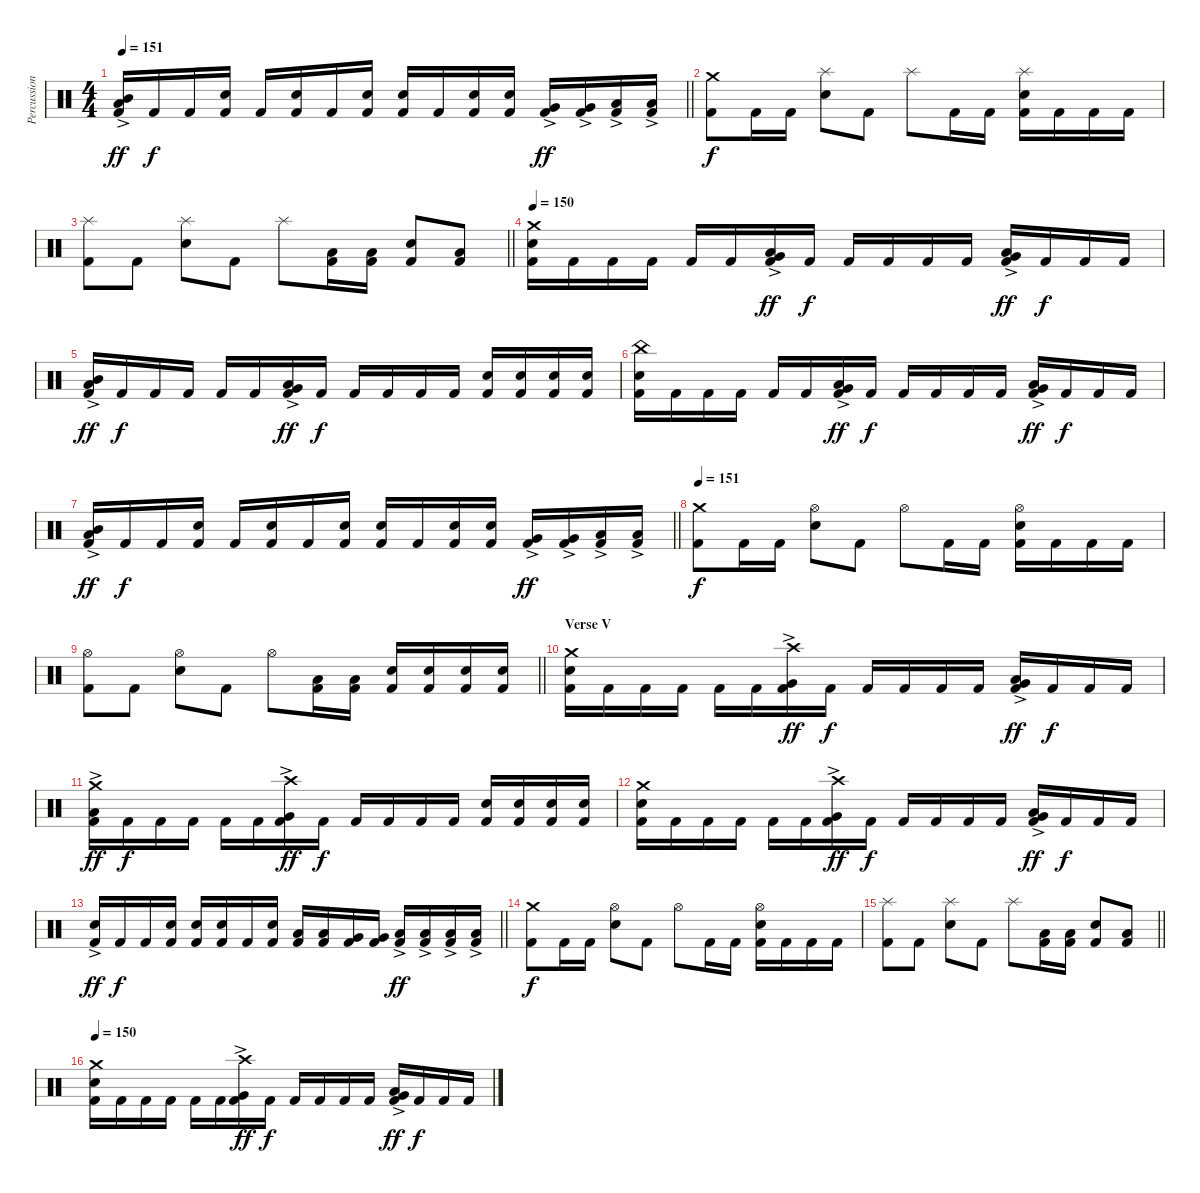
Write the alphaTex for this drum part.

\track ("Percussion" "Percussion") {instrument percussion}
\staff {score}
\articulation defaults
\ts (4 4)
\tempo 151
\clef neutral
\barLineRight lightlight
\ks c
("Kick (hit) 2" "Low Tom (hit)"{ac} "Mid Tom (hit)"{ac}).16{dy ff} "Kick (hit) 2".16{dy f} "Kick (hit) 2".16 ("Kick (hit) 2" "Snare (hit) 2").16 "Kick (hit) 2".16 ("Kick (hit) 2" "Snare (hit) 2").16 "Kick (hit) 2".16 ("Kick (hit) 2" "Snare (hit) 2").16 ("Kick (hit) 2" "Snare (hit) 2").16 "Kick (hit) 2".16 ("Kick (hit) 2" "Snare (hit) 2").16 ("Kick (hit) 2" "Snare (hit) 2").16 ("Kick (hit) 2" "Very Low Tom (hit)"{ac}).16{dy ff} ("Kick (hit) 2" "Very Low Tom (hit)"{ac}).16 ("Kick (hit) 2" "Low Floor Tom (hit)"{ac}).16 ("Kick (hit) 2" "Low Floor Tom (hit)"{ac}).16 |
\section ("" "")
("Kick (hit) 2" "Crash medium (hit)").8{dy f} "Kick (hit) 2".16 "Kick (hit) 2".16 ("Snare (hit) 2" "Splash (hit)").8 "Kick (hit) 2".8 "Splash (hit)".8 "Kick (hit) 2".16 "Kick (hit) 2".16 ("Kick (hit) 2" "Snare (hit) 2" "Splash (hit)").16 "Kick (hit) 2".16 "Kick (hit) 2".16 "Kick (hit) 2".16 |
\barLineRight lightlight
("Kick (hit) 2" "Splash (hit)").8 "Kick (hit) 2".8 ("Snare (hit) 2" "Splash (hit)").8 "Kick (hit) 2".8 "Splash (hit)".8 ("Kick (hit) 2" "Low Tom (hit)").16 ("Kick (hit) 2" "Low Tom (hit)").16 ("Kick (hit) 2" "Snare (hit) 2").8 ("Kick (hit) 2" "Low Floor Tom (hit)").8 |
\section ("" "")
\tempo 150
("Kick (hit) 2" "Snare (hit) 2" "Crash medium (hit)").16 "Kick (hit) 2".16 "Kick (hit) 2".16 "Kick (hit) 2".16 "Kick (hit) 2".16 "Kick (hit) 2".16 ("Kick (hit) 2" "Very Low Tom (hit)"{ac} "Low Tom (hit)"{ac}).16{dy ff} "Kick (hit) 2".16{dy f} "Kick (hit) 2".16 "Kick (hit) 2".16 "Kick (hit) 2".16 "Kick (hit) 2".16 ("Kick (hit) 2" "Low Floor Tom (hit)"{ac} "Very Low Tom (hit)"{ac}).16{dy ff} "Kick (hit) 2".16{dy f} "Kick (hit) 2".16 "Kick (hit) 2".16 |
("Kick (hit) 2" "Low Tom (hit)"{ac} "Mid Tom (hit)"{ac}).16{dy ff} "Kick (hit) 2".16{dy f} "Kick (hit) 2".16 "Kick (hit) 2".16 "Kick (hit) 2".16 "Kick (hit) 2".16 ("Kick (hit) 2" "Very Low Tom (hit)"{ac} "Low Tom (hit)"{ac}).16{dy ff} "Kick (hit) 2".16{dy f} "Kick (hit) 2".16 "Kick (hit) 2".16 "Kick (hit) 2".16 "Kick (hit) 2".16 ("Kick (hit) 2" "Snare (hit) 2").16 ("Kick (hit) 2" "Snare (hit) 2").16 ("Kick (hit) 2" "Snare (hit) 2").16 ("Kick (hit) 2" "Snare (hit) 2").16 |
("Kick (hit) 2" "Snare (hit) 2" "China (hit)").16 "Kick (hit) 2".16 "Kick (hit) 2".16 "Kick (hit) 2".16 "Kick (hit) 2".16 "Kick (hit) 2".16 ("Kick (hit) 2" "Very Low Tom (hit)"{ac} "Low Tom (hit)"{ac}).16{dy ff} "Kick (hit) 2".16{dy f} "Kick (hit) 2".16 "Kick (hit) 2".16 "Kick (hit) 2".16 "Kick (hit) 2".16 ("Kick (hit) 2" "Low Floor Tom (hit)"{ac} "Very Low Tom (hit)"{ac}).16{dy ff} "Kick (hit) 2".16{dy f} "Kick (hit) 2".16 "Kick (hit) 2".16 |
\barLineRight lightlight
("Kick (hit) 2" "Low Tom (hit)"{ac} "Mid Tom (hit)"{ac}).16{dy ff} "Kick (hit) 2".16{dy f} "Kick (hit) 2".16 ("Kick (hit) 2" "Snare (hit) 2").16 "Kick (hit) 2".16 ("Kick (hit) 2" "Snare (hit) 2").16 "Kick (hit) 2".16 ("Kick (hit) 2" "Snare (hit) 2").16 ("Kick (hit) 2" "Snare (hit) 2").16 "Kick (hit) 2".16 ("Kick (hit) 2" "Snare (hit) 2").16 ("Kick (hit) 2" "Snare (hit) 2").16 ("Kick (hit) 2" "Very Low Tom (hit)"{ac}).16{dy ff} ("Kick (hit) 2" "Very Low Tom (hit)"{ac}).16 ("Kick (hit) 2" "Low Floor Tom (hit)"{ac}).16 ("Kick (hit) 2" "Low Floor Tom (hit)"{ac}).16 |
\section ("" "")
\tempo 151
("Kick (hit) 2" "Crash medium (hit)").8{dy f} "Kick (hit) 2".16 "Kick (hit) 2".16 ("Snare (hit) 2" "Hi-Hat (open)").8 "Kick (hit) 2".8 "Hi-Hat (open)".8 "Kick (hit) 2".16 "Kick (hit) 2".16 ("Kick (hit) 2" "Snare (hit) 2" "Hi-Hat (open)").16 "Kick (hit) 2".16 "Kick (hit) 2".16 "Kick (hit) 2".16 |
\barLineRight lightlight
("Kick (hit) 2" "Hi-Hat (open)").8 "Kick (hit) 2".8 ("Snare (hit) 2" "Hi-Hat (open)").8 "Kick (hit) 2".8 "Hi-Hat (open)".8 ("Kick (hit) 2" "Low Tom (hit)").16 ("Kick (hit) 2" "Low Tom (hit)").16 ("Kick (hit) 2" "Snare (hit) 2").16 ("Kick (hit) 2" "Snare (hit) 2").16 ("Kick (hit) 2" "Snare (hit) 2").16 ("Kick (hit) 2" "Snare (hit) 2").16 |
\section ("" "Verse V")
("Kick (hit) 2" "Snare (hit) 2" "Crash medium (hit)").16 "Kick (hit) 2".16 "Kick (hit) 2".16 "Kick (hit) 2".16 "Kick (hit) 2".16 "Kick (hit) 2".16 ("Kick (hit) 2" "Very Low Tom (hit)"{ac} "Crash high (hit)").16{dy ff} "Kick (hit) 2".16{dy f} "Kick (hit) 2".16 "Kick (hit) 2".16 "Kick (hit) 2".16 "Kick (hit) 2".16 ("Kick (hit) 2" "Low Floor Tom (hit)"{ac} "Very Low Tom (hit)"{ac}).16{dy ff} "Kick (hit) 2".16{dy f} "Kick (hit) 2".16 "Kick (hit) 2".16 |
("Kick (hit) 2" "Low Tom (hit)"{ac} "Crash medium (hit)").16{dy ff} "Kick (hit) 2".16{dy f} "Kick (hit) 2".16 "Kick (hit) 2".16 "Kick (hit) 2".16 "Kick (hit) 2".16 ("Kick (hit) 2" "Very Low Tom (hit)"{ac} "Crash high (hit)").16{dy ff} "Kick (hit) 2".16{dy f} "Kick (hit) 2".16 "Kick (hit) 2".16 "Kick (hit) 2".16 "Kick (hit) 2".16 ("Kick (hit) 2" "Snare (hit) 2").16 ("Kick (hit) 2" "Snare (hit) 2").16 ("Kick (hit) 2" "Snare (hit) 2").16 ("Kick (hit) 2" "Snare (hit) 2").16 |
("Kick (hit) 2" "Snare (hit) 2" "Crash medium (hit)").16 "Kick (hit) 2".16 "Kick (hit) 2".16 "Kick (hit) 2".16 "Kick (hit) 2".16 "Kick (hit) 2".16 ("Kick (hit) 2" "Very Low Tom (hit)"{ac} "Crash high (hit)").16{dy ff} "Kick (hit) 2".16{dy f} "Kick (hit) 2".16 "Kick (hit) 2".16 "Kick (hit) 2".16 "Kick (hit) 2".16 ("Kick (hit) 2" "Low Floor Tom (hit)"{ac} "Very Low Tom (hit)"{ac}).16{dy ff} "Kick (hit) 2".16{dy f} "Kick (hit) 2".16 "Kick (hit) 2".16 |
\barLineRight lightlight
("Kick (hit) 2" "Snare (hit) 2"{ac}).16{dy ff} "Kick (hit) 2".16{dy f} "Kick (hit) 2".16 ("Kick (hit) 2" "Snare (hit) 2").16 ("Kick (hit) 2" "Snare (hit) 2").16 ("Kick (hit) 2" "Snare (hit) 2").16 "Kick (hit) 2".16 ("Kick (hit) 2" "Snare (hit) 2").16 ("Kick (hit) 2" "Low Tom (hit)").16 ("Kick (hit) 2" "Low Tom (hit)").16 ("Kick (hit) 2" "Very Low Tom (hit)").16 ("Kick (hit) 2" "Very Low Tom (hit)").16 ("Kick (hit) 2" "Low Floor Tom (hit)"{ac}).16{dy ff} ("Kick (hit) 2" "Low Floor Tom (hit)"{ac}).16 ("Kick (hit) 2" "Low Floor Tom (hit)"{ac}).16 ("Kick (hit) 2" "Low Floor Tom (hit)"{ac}).16 |
\section ("" "")
("Kick (hit) 2" "Crash medium (hit)").8{dy f} "Kick (hit) 2".16 "Kick (hit) 2".16 ("Snare (hit) 2" "Hi-Hat (open)").8 "Kick (hit) 2".8 "Hi-Hat (open)".8 "Kick (hit) 2".16 "Kick (hit) 2".16 ("Kick (hit) 2" "Snare (hit) 2" "Hi-Hat (open)").16 "Kick (hit) 2".16 "Kick (hit) 2".16 "Kick (hit) 2".16 |
\barLineRight lightlight
("Kick (hit) 2" "Splash (hit)").8 "Kick (hit) 2".8 ("Snare (hit) 2" "Splash (hit)").8 "Kick (hit) 2".8 "Splash (hit)".8 ("Kick (hit) 2" "Low Tom (hit)").16 ("Kick (hit) 2" "Low Tom (hit)").16 ("Kick (hit) 2" "Snare (hit) 2").8 ("Kick (hit) 2" "Low Floor Tom (hit)").8 |
\section ("" "")
\tempo 150
("Kick (hit) 2" "Snare (hit) 2" "Crash medium (hit)").16 "Kick (hit) 2".16 "Kick (hit) 2".16 "Kick (hit) 2".16 "Kick (hit) 2".16 "Kick (hit) 2".16 ("Kick (hit) 2" "Very Low Tom (hit)"{ac} "Crash high (hit)").16{dy ff} "Kick (hit) 2".16{dy f} "Kick (hit) 2".16 "Kick (hit) 2".16 "Kick (hit) 2".16 "Kick (hit) 2".16 ("Kick (hit) 2" "Low Floor Tom (hit)"{ac} "Very Low Tom (hit)"{ac}).16{dy ff} "Kick (hit) 2".16{dy f} "Kick (hit) 2".16 "Kick (hit) 2".16
